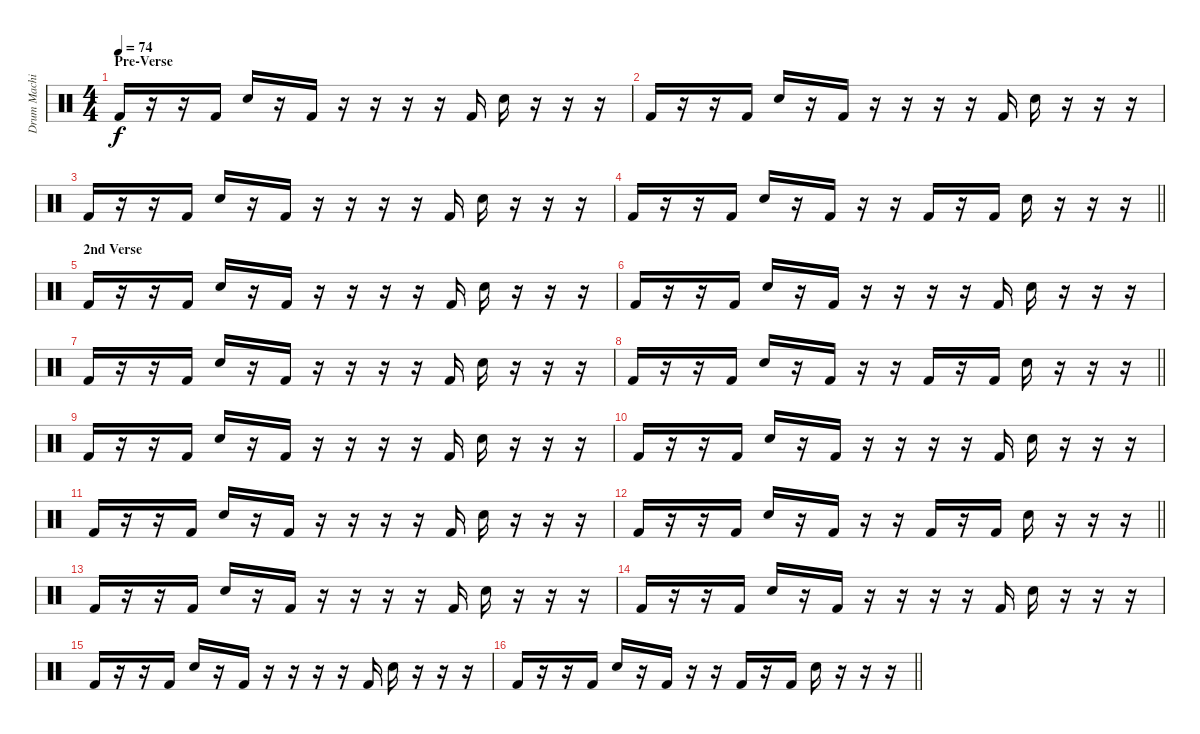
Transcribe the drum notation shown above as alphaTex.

\track ("Drum Machine" "Drum Machi") {instrument percussion}
\staff {score}
\articulation defaults
\ts (4 4)
\section ("" "Pre-Verse")
\tempo 74
\clef neutral
\ks c "Kick (hit) 2".16{dy f}
r.16 r.16 "Kick (hit) 2".16 "Electric Snare (hit)".16 r.16 "Kick (hit) 2".16 r.16 r.16 r.16 r.16 "Kick (hit) 2".16 "Electric Snare (hit)".16 r.16 r.16 r.16 |
"Kick (hit) 2".16 r.16 r.16 "Kick (hit) 2".16 "Electric Snare (hit)".16 r.16 "Kick (hit) 2".16 r.16 r.16 r.16 r.16 "Kick (hit) 2".16 "Electric Snare (hit)".16 r.16 r.16 r.16 |
"Kick (hit) 2".16 r.16 r.16 "Kick (hit) 2".16 "Electric Snare (hit)".16 r.16 "Kick (hit) 2".16 r.16 r.16 r.16 r.16 "Kick (hit) 2".16 "Electric Snare (hit)".16 r.16 r.16 r.16 |
\barLineRight lightlight "Kick (hit) 2".16
r.16 r.16 "Kick (hit) 2".16 "Electric Snare (hit)".16 r.16 "Kick (hit) 2".16 r.16 r.16 "Kick (hit) 2".16 r.16 "Kick (hit) 2".16 "Electric Snare (hit)".16 r.16 r.16 r.16 |
\section ("" "2nd Verse")
"Kick (hit) 2".16 r.16 r.16 "Kick (hit) 2".16 "Electric Snare (hit)".16 r.16 "Kick (hit) 2".16 r.16 r.16 r.16 r.16 "Kick (hit) 2".16 "Electric Snare (hit)".16 r.16 r.16 r.16 |
"Kick (hit) 2".16 r.16 r.16 "Kick (hit) 2".16 "Electric Snare (hit)".16 r.16 "Kick (hit) 2".16 r.16 r.16 r.16 r.16 "Kick (hit) 2".16 "Electric Snare (hit)".16 r.16 r.16 r.16 |
"Kick (hit) 2".16 r.16 r.16 "Kick (hit) 2".16 "Electric Snare (hit)".16 r.16 "Kick (hit) 2".16 r.16 r.16 r.16 r.16 "Kick (hit) 2".16 "Electric Snare (hit)".16 r.16 r.16 r.16 |
\barLineRight lightlight "Kick (hit) 2".16
r.16 r.16 "Kick (hit) 2".16 "Electric Snare (hit)".16 r.16 "Kick (hit) 2".16 r.16 r.16 "Kick (hit) 2".16 r.16 "Kick (hit) 2".16 "Electric Snare (hit)".16 r.16 r.16 r.16 |
"Kick (hit) 2".16 r.16 r.16 "Kick (hit) 2".16 "Electric Snare (hit)".16 r.16 "Kick (hit) 2".16 r.16 r.16 r.16 r.16 "Kick (hit) 2".16 "Electric Snare (hit)".16 r.16 r.16 r.16 |
"Kick (hit) 2".16 r.16 r.16 "Kick (hit) 2".16 "Electric Snare (hit)".16 r.16 "Kick (hit) 2".16 r.16 r.16 r.16 r.16 "Kick (hit) 2".16 "Electric Snare (hit)".16 r.16 r.16 r.16 |
"Kick (hit) 2".16 r.16 r.16 "Kick (hit) 2".16 "Electric Snare (hit)".16 r.16 "Kick (hit) 2".16 r.16 r.16 r.16 r.16 "Kick (hit) 2".16 "Electric Snare (hit)".16 r.16 r.16 r.16 |
\barLineRight lightlight "Kick (hit) 2".16
r.16 r.16 "Kick (hit) 2".16 "Electric Snare (hit)".16 r.16 "Kick (hit) 2".16 r.16 r.16 "Kick (hit) 2".16 r.16 "Kick (hit) 2".16 "Electric Snare (hit)".16 r.16 r.16 r.16 |
"Kick (hit) 2".16 r.16 r.16 "Kick (hit) 2".16 "Electric Snare (hit)".16 r.16 "Kick (hit) 2".16 r.16 r.16 r.16 r.16 "Kick (hit) 2".16 "Electric Snare (hit)".16 r.16 r.16 r.16 |
"Kick (hit) 2".16 r.16 r.16 "Kick (hit) 2".16 "Electric Snare (hit)".16 r.16 "Kick (hit) 2".16 r.16 r.16 r.16 r.16 "Kick (hit) 2".16 "Electric Snare (hit)".16 r.16 r.16 r.16 |
"Kick (hit) 2".16 r.16 r.16 "Kick (hit) 2".16 "Electric Snare (hit)".16 r.16 "Kick (hit) 2".16 r.16 r.16 r.16 r.16 "Kick (hit) 2".16 "Electric Snare (hit)".16 r.16 r.16 r.16 |
\barLineRight lightlight "Kick (hit) 2".16
r.16 r.16 "Kick (hit) 2".16 "Electric Snare (hit)".16 r.16 "Kick (hit) 2".16 r.16 r.16 "Kick (hit) 2".16 r.16 "Kick (hit) 2".16 "Electric Snare (hit)".16 r.16 r.16 r.16
